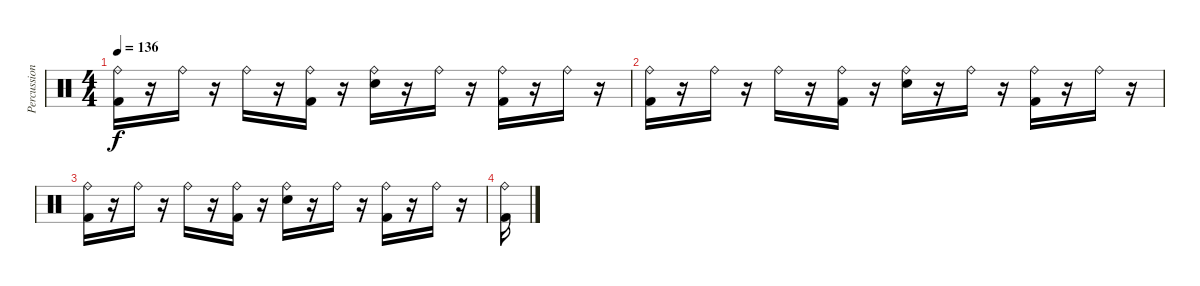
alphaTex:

\track ("Percussion" "Percussion") {instrument percussion}
\staff {score}
\articulation defaults
\ts (4 4)
\tempo 136
\clef neutral
\ks c
("Ride (bell)" "Kick (hit) 2").16{dy f} r.16 "Ride (bell)".16 r.16 "Ride (bell)".16 r.16 ("Ride (bell)" "Kick (hit) 2").16 r.16 ("Ride (bell)" "Electric Snare (hit)").16 r.16 "Ride (bell)".16 r.16 ("Ride (bell)" "Kick (hit) 2").16 r.16 "Ride (bell)".16 r.16 |
("Ride (bell)" "Kick (hit) 2").16 r.16 "Ride (bell)".16 r.16 "Ride (bell)".16 r.16 ("Ride (bell)" "Kick (hit) 2").16 r.16 ("Ride (bell)" "Electric Snare (hit)").16 r.16 "Ride (bell)".16 r.16 ("Ride (bell)" "Kick (hit) 2").16 r.16 "Ride (bell)".16 r.16 |
("Ride (bell)" "Kick (hit) 2").16 r.16 "Ride (bell)".16 r.16 "Ride (bell)".16 r.16 ("Ride (bell)" "Kick (hit) 2").16 r.16 ("Ride (bell)" "Electric Snare (hit)").16 r.16 "Ride (bell)".16 r.16 ("Ride (bell)" "Kick (hit) 2").16 r.16 "Ride (bell)".16 r.16 |
("Ride (bell)" "Kick (hit) 2").16
